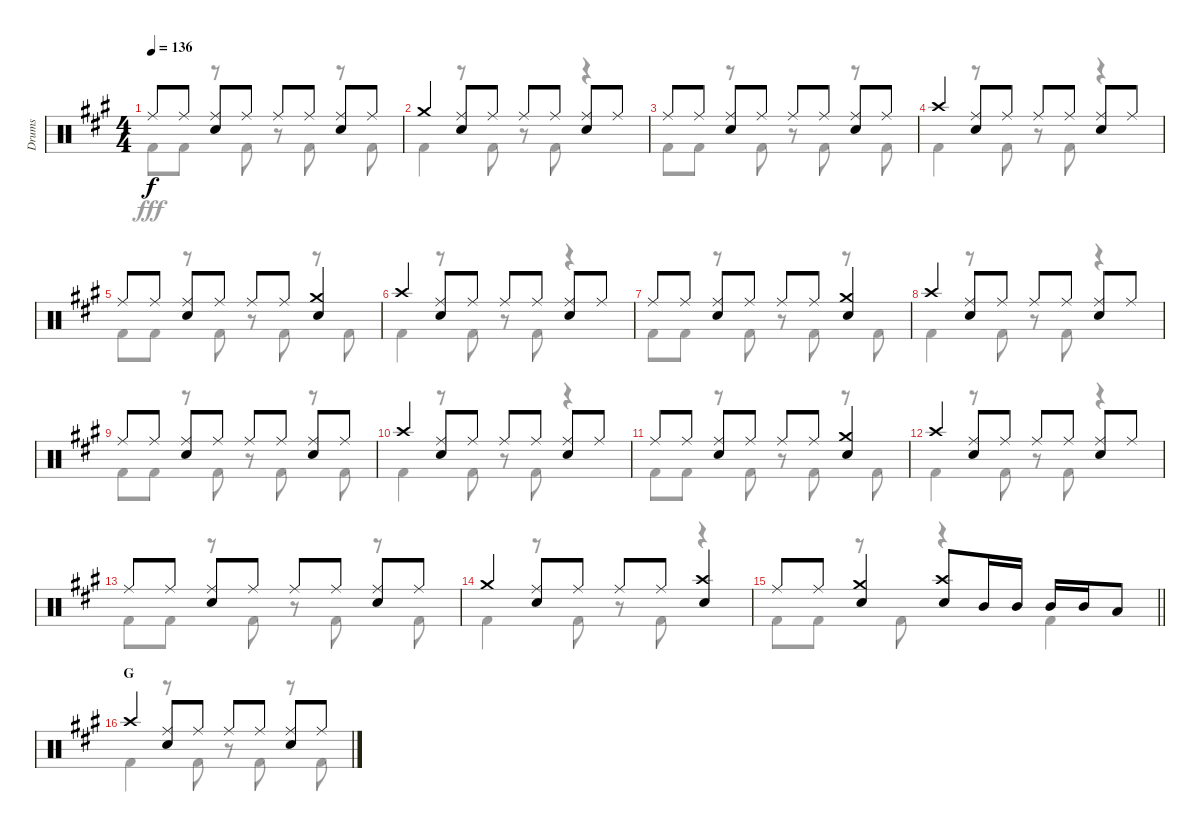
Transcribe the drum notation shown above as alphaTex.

\track ("Drums" "Drums") {instrument percussion}
\staff {score}
\articulation defaults
\voice
\ts (4 4)
\tempo 136
\clef neutral
\ks a "Ride (middle)".8{dy f} "Ride (middle)".8
("Ride (middle)" "Snare (hit) 2").8 "Ride (middle)".8 "Ride (middle)".8 "Ride (middle)".8 ("Ride (middle)" "Snare (hit) 2").8 "Ride (middle)".8 |
"Crash medium (hit)".4 ("Ride (middle)" "Snare (hit) 2").8 "Ride (middle)".8 "Ride (middle)".8 "Ride (middle)".8 ("Ride (middle)" "Snare (hit) 2").8 "Ride (middle)".8 |
"Ride (middle)".8 "Ride (middle)".8 ("Ride (middle)" "Snare (hit) 2").8 "Ride (middle)".8 "Ride (middle)".8 "Ride (middle)".8 ("Ride (middle)" "Snare (hit) 2").8 "Ride (middle)".8 |
"Crash high (hit)".4 ("Ride (middle)" "Snare (hit) 2").8 "Ride (middle)".8 "Ride (middle)".8 "Ride (middle)".8 ("Ride (middle)" "Snare (hit) 2").8 "Ride (middle)".8 |
"Ride (middle)".8 "Ride (middle)".8 ("Ride (middle)" "Snare (hit) 2").8 "Ride (middle)".8 "Ride (middle)".8 "Ride (middle)".8 ("Crash medium (hit)" "Snare (hit) 2").4 |
"Crash high (hit)".4 ("Ride (middle)" "Snare (hit) 2").8 "Ride (middle)".8 "Ride (middle)".8 "Ride (middle)".8 ("Ride (middle)" "Snare (hit) 2").8 "Ride (middle)".8 |
"Ride (middle)".8 "Ride (middle)".8 ("Ride (middle)" "Snare (hit) 2").8 "Ride (middle)".8 "Ride (middle)".8 "Ride (middle)".8 ("Crash medium (hit)" "Snare (hit) 2").4 |
"Crash high (hit)".4 ("Ride (middle)" "Snare (hit) 2").8 "Ride (middle)".8 "Ride (middle)".8 "Ride (middle)".8 ("Ride (middle)" "Snare (hit) 2").8 "Ride (middle)".8 |
"Ride (middle)".8 "Ride (middle)".8 ("Ride (middle)" "Snare (hit) 2").8 "Ride (middle)".8 "Ride (middle)".8 "Ride (middle)".8 ("Ride (middle)" "Snare (hit) 2").8 "Ride (middle)".8 |
"Crash high (hit)".4 ("Ride (middle)" "Snare (hit) 2").8 "Ride (middle)".8 "Ride (middle)".8 "Ride (middle)".8 ("Ride (middle)" "Snare (hit) 2").8 "Ride (middle)".8 |
"Ride (middle)".8 "Ride (middle)".8 ("Ride (middle)" "Snare (hit) 2").8 "Ride (middle)".8 "Ride (middle)".8 "Ride (middle)".8 ("Crash medium (hit)" "Snare (hit) 2").4 |
"Crash high (hit)".4 ("Ride (middle)" "Snare (hit) 2").8 "Ride (middle)".8 "Ride (middle)".8 "Ride (middle)".8 ("Ride (middle)" "Snare (hit) 2").8 "Ride (middle)".8 |
"Ride (middle)".8 "Ride (middle)".8 ("Ride (middle)" "Snare (hit) 2").8 "Ride (middle)".8 "Ride (middle)".8 "Ride (middle)".8 ("Ride (middle)" "Snare (hit) 2").8 "Ride (middle)".8 |
"Crash medium (hit)".4 ("Ride (middle)" "Snare (hit) 2").8 "Ride (middle)".8 "Ride (middle)".8 "Ride (middle)".8 ("Crash high (hit)" "Snare (hit) 2").4 |
\barLineRight lightlight "Ride (middle)".8 "Ride (middle)".8
("Crash medium (hit)" "Snare (hit) 2").4 ("Crash high (hit)" "Snare (hit) 2").8 "Mid Tom (hit)".16 "Mid Tom (hit)".16 "Mid Tom (hit)".16 "Mid Tom (hit)".16 "Low Tom (hit)".8 |
\section ("" "G")
"Crash high (hit)".4 ("Ride (middle)" "Snare (hit) 2").8 "Ride (middle)".8 "Ride (middle)".8 "Ride (middle)".8 ("Ride (middle)" "Snare (hit) 2").8 "Ride (middle)".8
\voice
\clef neutral
\ottava regular
\simile none
\ks a "Kick (hit) 2".8{dy fff} "Kick (hit) 2".8
r.8 "Kick (hit) 2".8 r.8 "Kick (hit) 2".8 r.8 "Kick (hit) 2".8 |
"Kick (hit) 2".4 r.8 "Kick (hit) 2".8 r.8 "Kick (hit) 2".8 r.4 |
"Kick (hit) 2".8 "Kick (hit) 2".8 r.8 "Kick (hit) 2".8 r.8 "Kick (hit) 2".8 r.8 "Kick (hit) 2".8 |
"Kick (hit) 2".4 r.8 "Kick (hit) 2".8 r.8 "Kick (hit) 2".8 r.4 |
"Kick (hit) 2".8 "Kick (hit) 2".8 r.8 "Kick (hit) 2".8 r.8 "Kick (hit) 2".8 r.8 "Kick (hit) 2".8 |
"Kick (hit) 2".4 r.8 "Kick (hit) 2".8 r.8 "Kick (hit) 2".8 r.4 |
"Kick (hit) 2".8 "Kick (hit) 2".8 r.8 "Kick (hit) 2".8 r.8 "Kick (hit) 2".8 r.8 "Kick (hit) 2".8 |
"Kick (hit) 2".4 r.8 "Kick (hit) 2".8 r.8 "Kick (hit) 2".8 r.4 |
"Kick (hit) 2".8 "Kick (hit) 2".8 r.8 "Kick (hit) 2".8 r.8 "Kick (hit) 2".8 r.8 "Kick (hit) 2".8 |
"Kick (hit) 2".4 r.8 "Kick (hit) 2".8 r.8 "Kick (hit) 2".8 r.4 |
"Kick (hit) 2".8 "Kick (hit) 2".8 r.8 "Kick (hit) 2".8 r.8 "Kick (hit) 2".8 r.8 "Kick (hit) 2".8 |
"Kick (hit) 2".4 r.8 "Kick (hit) 2".8 r.8 "Kick (hit) 2".8 r.4 |
"Kick (hit) 2".8 "Kick (hit) 2".8 r.8 "Kick (hit) 2".8 r.8 "Kick (hit) 2".8 r.8 "Kick (hit) 2".8 |
"Kick (hit) 2".4 r.8 "Kick (hit) 2".8 r.8 "Kick (hit) 2".8 r.4 |
\barLineRight lightlight "Kick (hit) 2".8 "Kick (hit) 2".8
r.8 "Kick (hit) 2".8 r.4 "Kick (hit) 2".4 |
"Kick (hit) 2".4 r.8 "Kick (hit) 2".8 r.8 "Kick (hit) 2".8 r.8 "Kick (hit) 2".8
